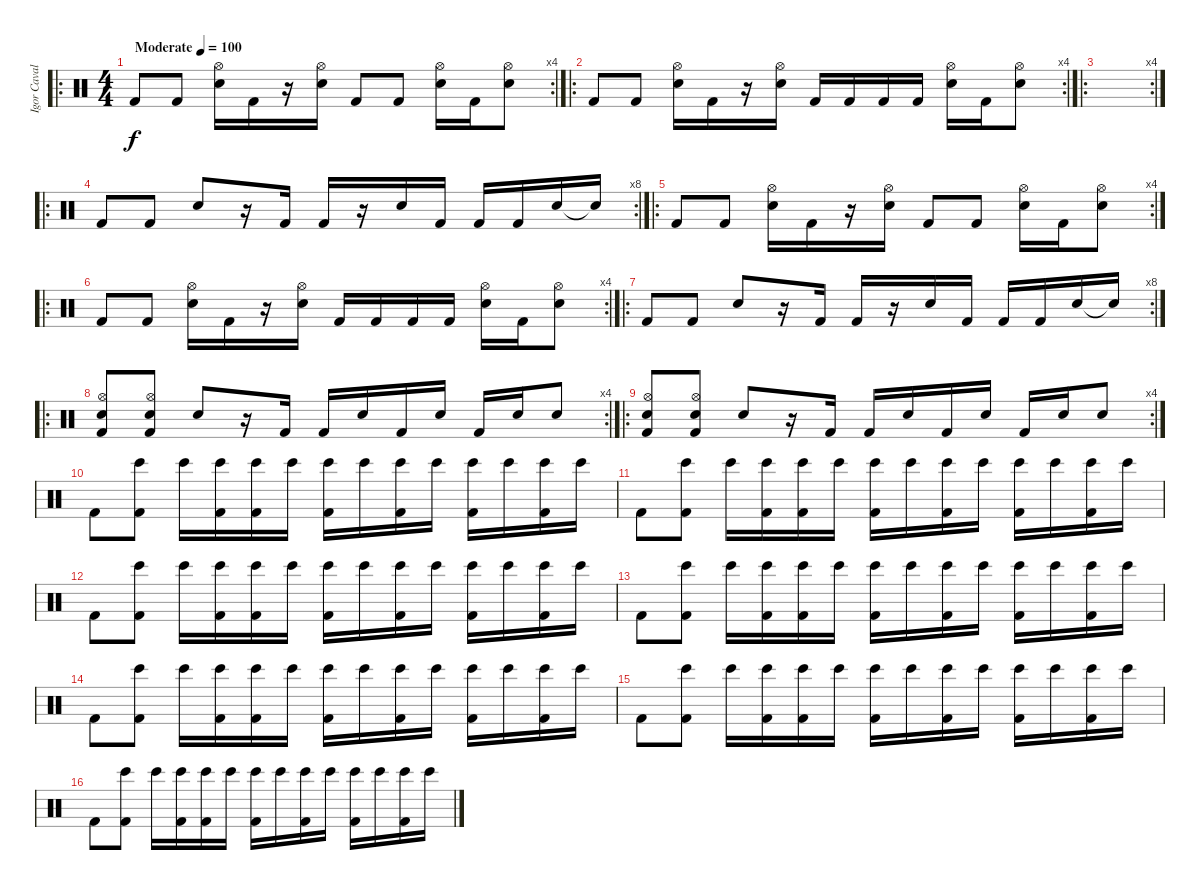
\track ("Igor Cavalera" "Igor Caval") {instrument percussion}
\staff {score}
\articulation defaults
\ro
\rc 4
\ts (4 4)
\tempo (100 "Moderate")
\clef neutral
\ks c "Kick (hit) 2".8{dy f} "Kick (hit) 2".8
("Hi-Hat (open)" "Snare (hit) 2").16 "Kick (hit) 2".16 r.16 ("Hi-Hat (open)" "Snare (hit) 2").16 "Kick (hit) 2".8 "Kick (hit) 2".8 ("Hi-Hat (open)" "Snare (hit) 2").16 "Kick (hit) 2".16 ("Hi-Hat (open)" "Snare (hit) 2").8 |
\ro
\rc 4 "Kick (hit) 2".8 "Kick (hit) 2".8
("Hi-Hat (open)" "Snare (hit) 2").16 "Kick (hit) 2".16 r.16 ("Hi-Hat (open)" "Snare (hit) 2").16 "Kick (hit) 2".16 "Kick (hit) 2".16 "Kick (hit) 2".16 "Kick (hit) 2".16 ("Hi-Hat (open)" "Snare (hit) 2").16 "Kick (hit) 2".16 ("Hi-Hat (open)" "Snare (hit) 2").8 |
\ro
\rc 4
|
\ro
\rc 8 "Kick (hit) 2".8 "Kick (hit) 2".8 "Snare (hit) 2".8
r.16 "Kick (hit) 2".16 "Kick (hit) 2".16 r.16 "Snare (hit) 2".16 "Kick (hit) 2".16 "Kick (hit) 2".16 "Kick (hit) 2".16 "Snare (hit) 2".16 "Snare (hit)"{t}.16 |
\ro
\rc 4 "Kick (hit) 2".8 "Kick (hit) 2".8
("Hi-Hat (open)" "Snare (hit) 2").16 "Kick (hit) 2".16 r.16 ("Hi-Hat (open)" "Snare (hit) 2").16 "Kick (hit) 2".8 "Kick (hit) 2".8 ("Hi-Hat (open)" "Snare (hit) 2").16 "Kick (hit) 2".16 ("Hi-Hat (open)" "Snare (hit) 2").8 |
\ro
\rc 4 "Kick (hit) 2".8 "Kick (hit) 2".8
("Hi-Hat (open)" "Snare (hit) 2").16 "Kick (hit) 2".16 r.16 ("Hi-Hat (open)" "Snare (hit) 2").16 "Kick (hit) 2".16 "Kick (hit) 2".16 "Kick (hit) 2".16 "Kick (hit) 2".16 ("Hi-Hat (open)" "Snare (hit) 2").16 "Kick (hit) 2".16 ("Hi-Hat (open)" "Snare (hit) 2").8 |
\ro
\rc 8 "Kick (hit) 2".8 "Kick (hit) 2".8 "Snare (hit) 2".8
r.16 "Kick (hit) 2".16 "Kick (hit) 2".16 r.16 "Snare (hit) 2".16 "Kick (hit) 2".16 "Kick (hit) 2".16 "Kick (hit) 2".16 "Snare (hit) 2".16 "Snare (hit)"{t}.16 |
\ro
\rc 4
("Hi-Hat (open)" "Snare (hit) 2" "Kick (hit) 2").8 ("Hi-Hat (open)" "Snare (hit) 2" "Kick (hit) 2").8 "Snare (hit) 2".8 r.16 "Kick (hit) 2".16 "Kick (hit) 2".16 "Snare (hit) 2".16 "Kick (hit) 2".16 "Snare (hit) 2".16 "Kick (hit) 2".16 "Snare (hit) 2".16 "Snare (hit) 2".8 |
\ro
\rc 4
("Hi-Hat (open)" "Snare (hit) 2" "Kick (hit) 2").8 ("Hi-Hat (open)" "Snare (hit) 2" "Kick (hit) 2").8 "Snare (hit) 2".8 r.16 "Kick (hit) 2".16 "Kick (hit) 2".16 "Snare (hit) 2".16 "Kick (hit) 2".16 "Snare (hit) 2".16 "Kick (hit) 2".16 "Snare (hit) 2".16 "Snare (hit) 2".8 |
"Kick (hit) 2".8 ("Bongo High (hit)" "Kick (hit) 2").8 "Bongo High (hit)".16 ("Bongo High (hit)" "Kick (hit) 2").16 ("Bongo High (hit)" "Kick (hit) 2").16 "Bongo High (hit)".16 ("Bongo High (hit)" "Kick (hit) 2").16 "Bongo High (hit)".16 ("Bongo High (hit)" "Kick (hit) 2").16 "Bongo High (hit)".16 ("Bongo High (hit)" "Kick (hit) 2").16 "Bongo High (hit)".16 ("Bongo High (hit)" "Kick (hit) 2").16 "Bongo High (hit)".16 |
"Kick (hit) 2".8 ("Bongo High (hit)" "Kick (hit) 2").8 "Bongo High (hit)".16 ("Bongo High (hit)" "Kick (hit) 2").16 ("Bongo High (hit)" "Kick (hit) 2").16 "Bongo High (hit)".16 ("Bongo High (hit)" "Kick (hit) 2").16 "Bongo High (hit)".16 ("Bongo High (hit)" "Kick (hit) 2").16 "Bongo High (hit)".16 ("Bongo High (hit)" "Kick (hit) 2").16 "Bongo High (hit)".16 ("Bongo High (hit)" "Kick (hit) 2").16 "Bongo High (hit)".16 |
"Kick (hit) 2".8 ("Bongo High (hit)" "Kick (hit) 2").8 "Bongo High (hit)".16 ("Bongo High (hit)" "Kick (hit) 2").16 ("Bongo High (hit)" "Kick (hit) 2").16 "Bongo High (hit)".16 ("Bongo High (hit)" "Kick (hit) 2").16 "Bongo High (hit)".16 ("Bongo High (hit)" "Kick (hit) 2").16 "Bongo High (hit)".16 ("Bongo High (hit)" "Kick (hit) 2").16 "Bongo High (hit)".16 ("Bongo High (hit)" "Kick (hit) 2").16 "Bongo High (hit)".16 |
"Kick (hit) 2".8 ("Bongo High (hit)" "Kick (hit) 2").8 "Bongo High (hit)".16 ("Bongo High (hit)" "Kick (hit) 2").16 ("Bongo High (hit)" "Kick (hit) 2").16 "Bongo High (hit)".16 ("Bongo High (hit)" "Kick (hit) 2").16 "Bongo High (hit)".16 ("Bongo High (hit)" "Kick (hit) 2").16 "Bongo High (hit)".16 ("Bongo High (hit)" "Kick (hit) 2").16 "Bongo High (hit)".16 ("Bongo High (hit)" "Kick (hit) 2").16 "Bongo High (hit)".16 |
"Kick (hit) 2".8 ("Bongo High (hit)" "Kick (hit) 2").8 "Bongo High (hit)".16 ("Bongo High (hit)" "Kick (hit) 2").16 ("Bongo High (hit)" "Kick (hit) 2").16 "Bongo High (hit)".16 ("Bongo High (hit)" "Kick (hit) 2").16 "Bongo High (hit)".16 ("Bongo High (hit)" "Kick (hit) 2").16 "Bongo High (hit)".16 ("Bongo High (hit)" "Kick (hit) 2").16 "Bongo High (hit)".16 ("Bongo High (hit)" "Kick (hit) 2").16 "Bongo High (hit)".16 |
"Kick (hit) 2".8 ("Bongo High (hit)" "Kick (hit) 2").8 "Bongo High (hit)".16 ("Bongo High (hit)" "Kick (hit) 2").16 ("Bongo High (hit)" "Kick (hit) 2").16 "Bongo High (hit)".16 ("Bongo High (hit)" "Kick (hit) 2").16 "Bongo High (hit)".16 ("Bongo High (hit)" "Kick (hit) 2").16 "Bongo High (hit)".16 ("Bongo High (hit)" "Kick (hit) 2").16 "Bongo High (hit)".16 ("Bongo High (hit)" "Kick (hit) 2").16 "Bongo High (hit)".16 |
"Kick (hit) 2".8 ("Bongo High (hit)" "Kick (hit) 2").8 "Bongo High (hit)".16 ("Bongo High (hit)" "Kick (hit) 2").16 ("Bongo High (hit)" "Kick (hit) 2").16 "Bongo High (hit)".16 ("Bongo High (hit)" "Kick (hit) 2").16 "Bongo High (hit)".16 ("Bongo High (hit)" "Kick (hit) 2").16 "Bongo High (hit)".16 ("Bongo High (hit)" "Kick (hit) 2").16 "Bongo High (hit)".16 ("Bongo High (hit)" "Kick (hit) 2").16 "Bongo High (hit)".16
